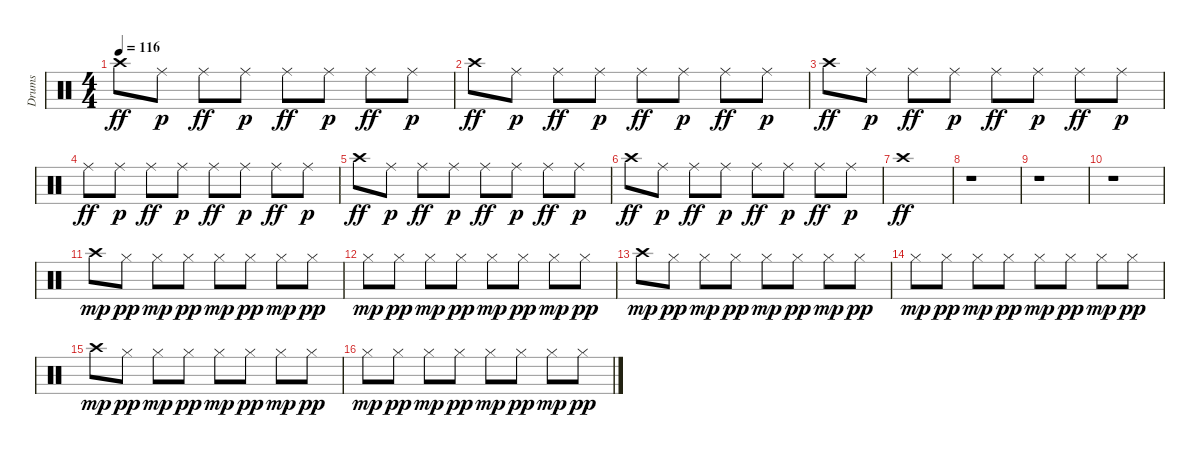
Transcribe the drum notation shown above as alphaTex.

\track ("Drums" "Drums") {instrument percussion}
\staff {score}
\articulation defaults
\ts (4 4)
\tempo 116
\clef neutral
\ks c "Crash high (hit)".8{dy ff} "Ride (middle)".8{dy p} "Ride (middle)".8{dy ff} "Ride (middle)".8{dy p} "Ride (middle)".8{dy ff} "Ride (middle)".8{dy p} "Ride (middle)".8{dy ff} "Ride (middle)".8{dy p}
|
"Crash high (hit)".8{dy ff} "Ride (middle)".8{dy p} "Ride (middle)".8{dy ff} "Ride (middle)".8{dy p} "Ride (middle)".8{dy ff} "Ride (middle)".8{dy p} "Ride (middle)".8{dy ff} "Ride (middle)".8{dy p} |
"Crash high (hit)".8{dy ff} "Ride (middle)".8{dy p} "Ride (middle)".8{dy ff} "Ride (middle)".8{dy p} "Ride (middle)".8{dy ff} "Ride (middle)".8{dy p} "Ride (middle)".8{dy ff} "Ride (middle)".8{dy p} |
"Ride (middle)".8{dy ff} "Ride (middle)".8{dy p} "Ride (middle)".8{dy ff} "Ride (middle)".8{dy p} "Ride (middle)".8{dy ff} "Ride (middle)".8{dy p} "Ride (middle)".8{dy ff} "Ride (middle)".8{dy p} |
"Crash high (hit)".8{dy ff} "Ride (middle)".8{dy p} "Ride (middle)".8{dy ff} "Ride (middle)".8{dy p} "Ride (middle)".8{dy ff} "Ride (middle)".8{dy p} "Ride (middle)".8{dy ff} "Ride (middle)".8{dy p} |
"Crash high (hit)".8{dy ff} "Ride (middle)".8{dy p} "Ride (middle)".8{dy ff} "Ride (middle)".8{dy p} "Ride (middle)".8{dy ff} "Ride (middle)".8{dy p} "Ride (middle)".8{dy ff} "Ride (middle)".8{dy p} |
"Crash high (hit)".1{dy ff} |
r.1 |
r.1 |
r.1 |
"Crash high (hit)".8{dy mp} "Hi-Hat (closed)".8{dy pp} "Hi-Hat (closed)".8{dy mp} "Hi-Hat (closed)".8{dy pp} "Hi-Hat (closed)".8{dy mp} "Hi-Hat (closed)".8{dy pp} "Hi-Hat (closed)".8{dy mp} "Hi-Hat (closed)".8{dy pp} |
"Hi-Hat (closed)".8{dy mp} "Hi-Hat (closed)".8{dy pp} "Hi-Hat (closed)".8{dy mp} "Hi-Hat (closed)".8{dy pp} "Hi-Hat (closed)".8{dy mp} "Hi-Hat (closed)".8{dy pp} "Hi-Hat (closed)".8{dy mp} "Hi-Hat (closed)".8{dy pp} |
"Crash high (hit)".8{dy mp} "Hi-Hat (closed)".8{dy pp} "Hi-Hat (closed)".8{dy mp} "Hi-Hat (closed)".8{dy pp} "Hi-Hat (closed)".8{dy mp} "Hi-Hat (closed)".8{dy pp} "Hi-Hat (closed)".8{dy mp} "Hi-Hat (closed)".8{dy pp} |
"Hi-Hat (closed)".8{dy mp} "Hi-Hat (closed)".8{dy pp} "Hi-Hat (closed)".8{dy mp} "Hi-Hat (closed)".8{dy pp} "Hi-Hat (closed)".8{dy mp} "Hi-Hat (closed)".8{dy pp} "Hi-Hat (closed)".8{dy mp} "Hi-Hat (closed)".8{dy pp} |
"Crash high (hit)".8{dy mp} "Hi-Hat (closed)".8{dy pp} "Hi-Hat (closed)".8{dy mp} "Hi-Hat (closed)".8{dy pp} "Hi-Hat (closed)".8{dy mp} "Hi-Hat (closed)".8{dy pp} "Hi-Hat (closed)".8{dy mp} "Hi-Hat (closed)".8{dy pp} |
"Hi-Hat (closed)".8{dy mp} "Hi-Hat (closed)".8{dy pp} "Hi-Hat (closed)".8{dy mp} "Hi-Hat (closed)".8{dy pp} "Hi-Hat (closed)".8{dy mp} "Hi-Hat (closed)".8{dy pp} "Hi-Hat (closed)".8{dy mp} "Hi-Hat (closed)".8{dy pp}
